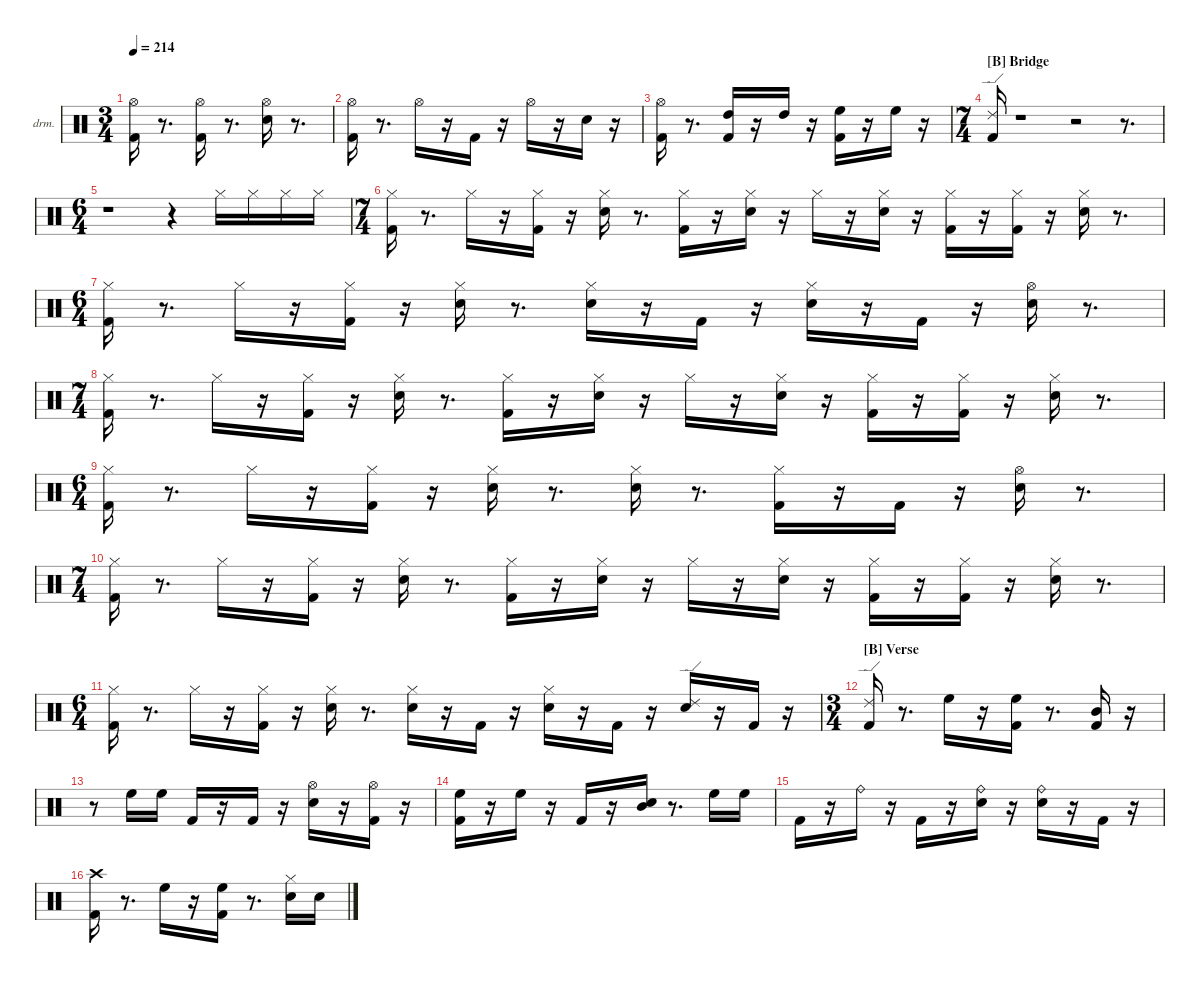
\hideDynamics
\bracketExtendMode nobrackets
\firstSystemTrackNameOrientation horizontal
\otherSystemsTrackNameOrientation horizontal
\track ("EZdrummer 3" "drm.") {instrument percussion}
\staff {score}
\articulation defaults
\ts (3 4)
\tempo 214
\clef neutral
\ks aminor
("Kick (hit) 2" "Hi-Hat (open)"{acc #}).16{dy fff} r.8{d} ("Kick (hit) 2" "Hi-Hat (open)"{acc #}).16{dy f} r.8{d} ("Snare (hit) 2" "Hi-Hat (open)"{acc #}).16 r.8{d} |
("Kick (hit) 2" "Hi-Hat (open)"{acc #}).16{dy fff} r.8{d} "Hi-Hat (open)"{acc #}.16{dy mp} r.16 "Kick (hit) 2".16{dy f} r.16 "Hi-Hat (open)"{acc #}.16 r.16 "Snare (hit) 2".16{dy ff} r.16 |
("Kick (hit) 2" "Hi-Hat (open)"{acc #}).16{dy fff} r.8{d} ("Kick (hit) 2" "High Tom (hit)").16{dy mf} r.16 "High Tom (hit)".16{dy mp} r.16 ("Kick (hit) 2" "High Floor Tom (hit)").16{dy ff} r.16 "High Floor Tom (hit)".16{dy mp} r.16 |
\ts (7 4)
\section ("B" "Bridge")
("Kick (hit) 2" "Ride (edge) 2").16{dy fff} r.1 r.2 r.8{d} |
\ts (6 4)
r.1 r.4 "Hi-Hat (closed)"{acc #}.16{dy ff} "Hi-Hat (closed)"{acc #}.16{dy mf} "Hi-Hat (closed)"{acc #}.16{dy ff} "Hi-Hat (closed)"{acc #}.16{dy mp} |
\ts (7 4)
("Kick (hit) 2" "Hi-Hat (closed)"{acc #}).16{dy ff} r.8{d} "Hi-Hat (closed)"{acc #}.16{dy mf} r.16 ("Kick (hit) 2" "Hi-Hat (closed)"{acc #}).16{dy f} r.16 ("Snare (hit) 2" "Hi-Hat (closed)"{acc #}).16 r.8{d} ("Kick (hit) 2" "Hi-Hat (closed)"{acc #}).16 r.16 ("Snare (hit) 2" "Hi-Hat (closed)"{acc #}).16 r.16 "Hi-Hat (closed)"{acc #}.16{dy p} r.16 ("Snare (hit) 2" "Hi-Hat (closed)"{acc #}).16{dy f} r.16 ("Kick (hit) 2" "Hi-Hat (closed)"{acc #}).16 r.16 ("Kick (hit) 2" "Hi-Hat (closed)"{acc #}).16 r.16 ("Snare (hit) 2" "Hi-Hat (closed)"{acc #}).16 r.8{d} |
\ts (6 4)
("Kick (hit) 2" "Hi-Hat (closed)"{acc #}).16 r.8{d} "Hi-Hat (closed)"{acc #}.16{dy mf} r.16 ("Kick (hit) 2" "Hi-Hat (closed)"{acc #}).16{dy f} r.16 ("Snare (hit) 2" "Hi-Hat (closed)"{acc #}).16 r.8{d} ("Snare (hit) 2" "Hi-Hat (closed)"{acc #}).16{dy fff} r.16 "Kick (hit) 2".16{dy mf} r.16 ("Snare (hit) 2" "Hi-Hat (closed)"{acc #}).16 r.16 "Kick (hit) 2".16 r.16 ("Snare (hit) 2" "Hi-Hat (open)"{acc #}).16{dy ff} r.8{d} |
\ts (7 4)
("Kick (hit) 2" "Hi-Hat (closed)"{acc #}).16{dy f} r.8{d} "Hi-Hat (closed)"{acc #}.16{dy mf} r.16 ("Kick (hit) 2" "Hi-Hat (closed)"{acc #}).16{dy pp} r.16 ("Snare (hit) 2" "Hi-Hat (closed)"{acc #}).16{dy ff} r.8{d} ("Kick (hit) 2" "Hi-Hat (closed)"{acc #}).16{dy f} r.16 ("Snare (hit) 2" "Hi-Hat (closed)"{acc #}).16 r.16 "Hi-Hat (closed)"{acc #}.16{dy p} r.16 ("Snare (hit) 2" "Hi-Hat (closed)"{acc #}).16{dy f} r.16 ("Kick (hit) 2" "Hi-Hat (closed)"{acc #}).16 r.16 ("Kick (hit) 2" "Hi-Hat (closed)"{acc #}).16 r.16 ("Snare (hit) 2" "Hi-Hat (closed)"{acc #}).16 r.8{d} |
\ts (6 4)
("Kick (hit) 2" "Hi-Hat (closed)"{acc #}).16 r.8{d} "Hi-Hat (closed)"{acc #}.16{dy mf} r.16 ("Kick (hit) 2" "Hi-Hat (closed)"{acc #}).16{dy pp} r.16 ("Snare (hit) 2" "Hi-Hat (closed)"{acc #}).16{dy f} r.8{d} ("Snare (hit) 2" "Hi-Hat (closed)"{acc #}).16{dy fff} r.8{d} ("Kick (hit) 2" "Hi-Hat (closed)"{acc #}).16{dy mf} r.16 "Kick (hit) 2".16{dy ff} r.16 ("Snare (hit) 2" "Hi-Hat (open)"{acc #}).16 r.8{d} |
\ts (7 4)
("Kick (hit) 2" "Hi-Hat (closed)"{acc #}).16{dy f} r.8{d} "Hi-Hat (closed)"{acc #}.16{dy mf} r.16 ("Kick (hit) 2" "Hi-Hat (closed)"{acc #}).16{dy f} r.16 ("Snare (hit) 2" "Hi-Hat (closed)"{acc #}).16 r.8{d} ("Kick (hit) 2" "Hi-Hat (closed)"{acc #}).16 r.16 ("Snare (hit) 2" "Hi-Hat (closed)"{acc #}).16 r.16 "Hi-Hat (closed)"{acc #}.16{dy p} r.16 ("Snare (hit) 2" "Hi-Hat (closed)"{acc #}).16{dy f} r.16 ("Kick (hit) 2" "Hi-Hat (closed)"{acc #}).16 r.16 ("Kick (hit) 2" "Hi-Hat (closed)"{acc #}).16 r.16 ("Snare (hit) 2" "Hi-Hat (closed)"{acc #}).16 r.8{d} |
\ts (6 4)
("Kick (hit) 2" "Hi-Hat (closed)"{acc #}).16 r.8{d} "Hi-Hat (closed)"{acc #}.16{dy mf} r.16 ("Kick (hit) 2" "Hi-Hat (closed)"{acc #}).16{dy pp} r.16 ("Snare (hit) 2" "Hi-Hat (closed)"{acc #}).16{dy f} r.8{d} ("Snare (hit) 2" "Hi-Hat (closed)"{acc #}).16{dy fff} r.16 "Kick (hit) 2".16{dy mf} r.16 ("Snare (hit) 2" "Hi-Hat (closed)"{acc #}).16 r.16 "Kick (hit) 2".16 r.16 ("Snare (hit) 2" "Ride (edge) 2").16{dy ff} r.16 "Kick (hit) 2".16{dy mf} r.16 |
\ts (3 4)
\section ("B" "Verse")
("Kick (hit) 2" "Ride (edge) 2").16{dy fff} r.8{d} "High Floor Tom (hit)".16{dy mf} r.16 ("Kick (hit) 2" "High Floor Tom (hit)").16{dy fff} r.8{d} ("Kick (hit) 2" "Mid Tom (hit)").16{dy ff} r.16 |
r.8 "High Floor Tom (hit)".16{dy f} "High Floor Tom (hit)".16{dy mp} "Kick (hit) 2".16{dy mf} r.16 "Kick (hit) 2".16{dy fff} r.16 ("Snare (hit) 2" "Hi-Hat (open)"{acc #}).16{dy ff} r.16 ("Kick (hit) 2" "Hi-Hat (open)"{acc #}).16{dy mp} r.16 |
("Kick (hit) 2" "High Floor Tom (hit)").16{dy fff} r.16 "High Floor Tom (hit)".16{dy mf} r.16 "Kick (hit) 2".16{dy mp} r.16 ("Snare (hit) 2" "Mid Tom (hit)").16{dy fff} r.8{d} "High Floor Tom (hit)".16{dy ff} "High Floor Tom (hit)".16{dy mf} |
"Kick (hit) 2".16 r.16 "Ride (bell)".16{dy fff} r.16 "Kick (hit) 2".16{dy ff} r.16 ("Snare (hit) 2" "Ride (bell)").16{dy f} r.16 ("Snare (hit) 2" "Ride (bell)").16{dy fff} r.16 "Kick (hit) 2".16{dy mf} r.16 |
("Kick (hit) 2" "Crash high (hit)"{acc #}).16{dy fff} r.8{d} "High Floor Tom (hit)".16 r.16 ("Kick (hit) 2" "High Floor Tom (hit)").16{dy f} r.8{d} ("Snare (hit) 2" "Hi-Hat (closed)"{acc #}).16{dy p} "Snare (hit) 2".16
